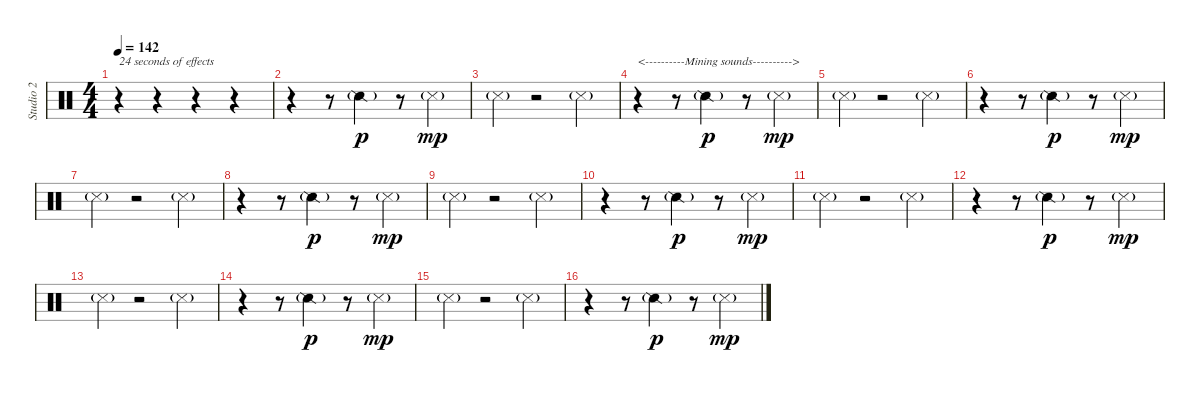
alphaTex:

\track ("Studio 2" "Studio 2") {instrument percussion}
\staff {score}
\articulation defaults
\ts (4 4)
\tempo 142
\clef neutral
\ks c
r.4{txt "24 seconds of effects" dy p} r.4 r.4 r.4 |
r.4 r.8 "Snare (side stick) 2"{g}.4 r.8 "Snare (side stick) 3"{g}.4{dy mp} |
"Metronome (hit)"{g}.4 r.2 "Snare (side stick) 3"{g}.4 |
r.4{txt "<----------Mining sounds---------->"} r.8 "Snare (side stick) 2"{g}.4{dy p} r.8 "Snare (side stick) 3"{g}.4{dy mp} |
"Metronome (hit)"{g}.4 r.2 "Snare (side stick) 3"{g}.4 |
r.4 r.8 "Snare (side stick) 2"{g}.4{dy p} r.8 "Snare (side stick) 3"{g}.4{dy mp} |
"Metronome (hit)"{g}.4 r.2 "Snare (side stick) 3"{g}.4 |
r.4 r.8 "Snare (side stick) 2"{g}.4{dy p} r.8 "Snare (side stick) 3"{g}.4{dy mp} |
"Metronome (hit)"{g}.4 r.2 "Snare (side stick) 3"{g}.4 |
r.4 r.8 "Snare (side stick) 2"{g}.4{dy p} r.8 "Snare (side stick) 3"{g}.4{dy mp} |
"Metronome (hit)"{g}.4 r.2 "Snare (side stick) 3"{g}.4 |
r.4 r.8 "Snare (side stick) 2"{g}.4{dy p} r.8 "Snare (side stick) 3"{g}.4{dy mp} |
"Metronome (hit)"{g}.4 r.2 "Snare (side stick) 3"{g}.4 |
r.4 r.8 "Snare (side stick) 2"{g}.4{dy p} r.8 "Snare (side stick) 3"{g}.4{dy mp} |
"Metronome (hit)"{g}.4 r.2 "Snare (side stick) 3"{g}.4 |
r.4 r.8 "Snare (side stick) 2"{g}.4{dy p} r.8 "Snare (side stick) 3"{g}.4{dy mp}
